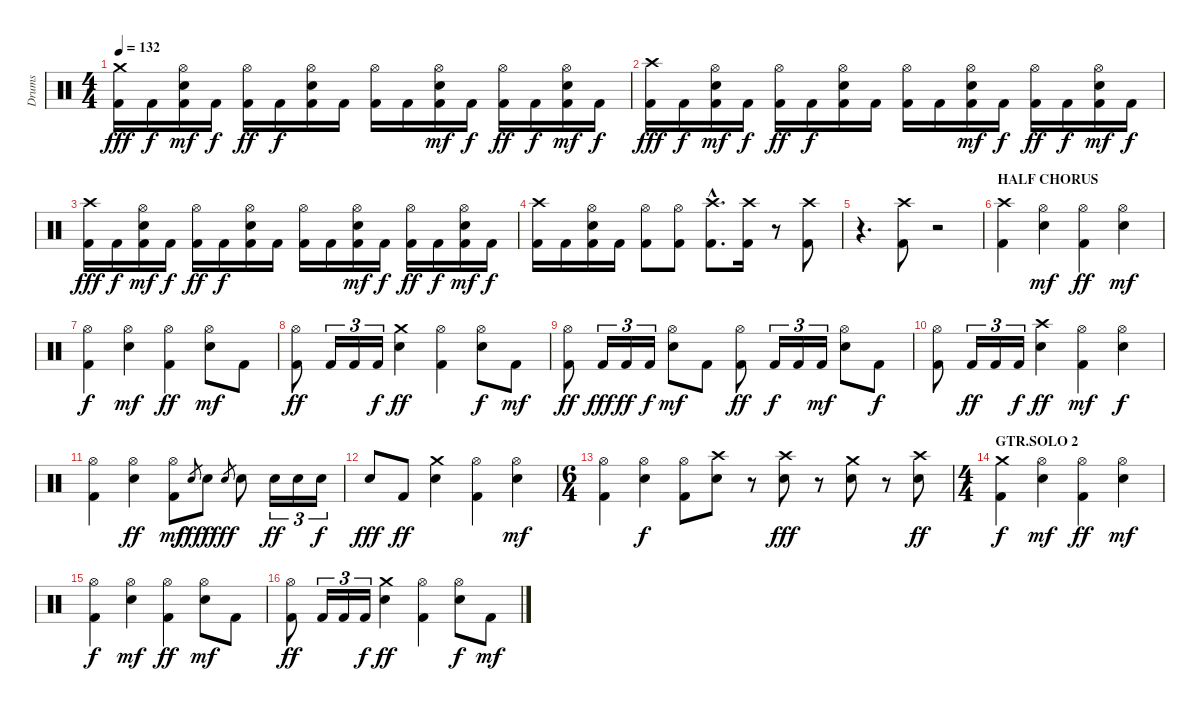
\track ("Drums" "Drums") {instrument percussion}
\staff {score}
\articulation defaults
\ts (4 4)
\tempo 132
\clef neutral
\ks c
("Crash medium (hit)" "Kick (hit) 2").16{dy fff} "Kick (hit) 2".16{dy f} ("Hi-Hat (open)" "Electric Snare (hit)" "Kick (hit) 2").16{dy mf} "Kick (hit) 2".16{dy f} ("Hi-Hat (open)" "Kick (hit) 2").16{dy ff} "Kick (hit) 2".16{dy f} ("Hi-Hat (open)" "Electric Snare (hit)" "Kick (hit) 2").16 "Kick (hit) 2".16 ("Hi-Hat (open)" "Kick (hit) 2").16 "Kick (hit) 2".16 ("Hi-Hat (open)" "Electric Snare (hit)" "Kick (hit) 2").16{dy mf} "Kick (hit) 2".16{dy f} ("Hi-Hat (open)" "Kick (hit) 2").16{dy ff} "Kick (hit) 2".16{dy f} ("Hi-Hat (open)" "Electric Snare (hit)" "Kick (hit) 2").16{dy mf} "Kick (hit) 2".16{dy f} |
("Crash high (hit)" "Kick (hit) 2").16{dy fff} "Kick (hit) 2".16{dy f} ("Hi-Hat (open)" "Electric Snare (hit)" "Kick (hit) 2").16{dy mf} "Kick (hit) 2".16{dy f} ("Hi-Hat (open)" "Kick (hit) 2").16{dy ff} "Kick (hit) 2".16{dy f} ("Hi-Hat (open)" "Electric Snare (hit)" "Kick (hit) 2").16 "Kick (hit) 2".16 ("Hi-Hat (open)" "Kick (hit) 2").16 "Kick (hit) 2".16 ("Hi-Hat (open)" "Electric Snare (hit)" "Kick (hit) 2").16{dy mf} "Kick (hit) 2".16{dy f} ("Hi-Hat (open)" "Kick (hit) 2").16{dy ff} "Kick (hit) 2".16{dy f} ("Hi-Hat (open)" "Electric Snare (hit)" "Kick (hit) 2").16{dy mf} "Kick (hit) 2".16{dy f} |
("Crash high (hit)" "Kick (hit) 2").16{dy fff} "Kick (hit) 2".16{dy f} ("Hi-Hat (open)" "Electric Snare (hit)" "Kick (hit) 2").16{dy mf} "Kick (hit) 2".16{dy f} ("Hi-Hat (open)" "Kick (hit) 2").16{dy ff} "Kick (hit) 2".16{dy f} ("Hi-Hat (open)" "Electric Snare (hit)" "Kick (hit) 2").16 "Kick (hit) 2".16 ("Hi-Hat (open)" "Kick (hit) 2").16 "Kick (hit) 2".16 ("Hi-Hat (open)" "Electric Snare (hit)" "Kick (hit) 2").16{dy mf} "Kick (hit) 2".16{dy f} ("Hi-Hat (open)" "Kick (hit) 2").16{dy ff} "Kick (hit) 2".16{dy f} ("Hi-Hat (open)" "Electric Snare (hit)" "Kick (hit) 2").16{dy mf} "Kick (hit) 2".16{dy f} |
("Crash high (hit)" "Kick (hit) 2").16 "Kick (hit) 2".16 ("Hi-Hat (open)" "Electric Snare (hit)" "Kick (hit) 2").16 "Kick (hit) 2".16 ("Hi-Hat (open)" "Kick (hit) 2").8 ("Hi-Hat (open)" "Kick (hit) 2").8 ("Crash high (hit)"{hac} "Kick (hit) 2"{hac}).8{d} ("Crash high (hit)" "Kick (hit) 2").16 r.8 ("Crash high (hit)" "Kick (hit) 2").8 |
r.4{d volume 0} ("Crash high (hit)" "Kick (hit) 2").8{volume 14} r.2{volume 0} |
\section ("" "HALF CHORUS")
("Crash high (hit)" "Kick (hit) 2").4{volume 14} ("Hi-Hat (open)" "Electric Snare (hit)").4{dy mf} ("Hi-Hat (open)" "Kick (hit) 2").4{dy ff} ("Hi-Hat (open)" "Electric Snare (hit)").4{dy mf} |
("Hi-Hat (open)" "Kick (hit) 2").4{dy f} ("Hi-Hat (open)" "Electric Snare (hit)").4{dy mf} ("Hi-Hat (open)" "Kick (hit) 2").4{dy ff} ("Hi-Hat (open)" "Electric Snare (hit)").8{dy mf} "Kick (hit) 2".8 |
("Hi-Hat (open)" "Kick (hit) 2").8{dy ff} "Kick (hit) 2".16{tu (3 2)} "Kick (hit) 2".16{tu (3 2)} "Kick (hit) 2".16{tu (3 2) dy f} ("Crash medium (hit)" "Electric Snare (hit)").4{dy ff} ("Hi-Hat (open)" "Kick (hit) 2").4 ("Hi-Hat (open)" "Electric Snare (hit)").8{dy f} "Kick (hit) 2".8{dy mf} |
("Hi-Hat (open)" "Kick (hit) 2").8{dy ff} "Kick (hit) 2".16{tu (3 2) dy fff} "Kick (hit) 2".16{tu (3 2) dy ff} "Kick (hit) 2".16{tu (3 2) dy f} ("Hi-Hat (open)" "Electric Snare (hit)").8{dy mf} "Kick (hit) 2".8 ("Hi-Hat (open)" "Kick (hit) 2").8{dy ff} "Kick (hit) 2".16{tu (3 2) dy f} "Kick (hit) 2".16{tu (3 2)} "Kick (hit) 2".16{tu (3 2) dy mf} ("Hi-Hat (open)" "Electric Snare (hit)").8 "Kick (hit) 2".8{dy f} |
("Hi-Hat (open)" "Kick (hit) 2").8 "Kick (hit) 2".16{tu (3 2) dy ff} "Kick (hit) 2".16{tu (3 2)} "Kick (hit) 2".16{tu (3 2) dy f} ("Crash high (hit)" "Electric Snare (hit)").4{dy ff} ("Hi-Hat (open)" "Kick (hit) 2").4{dy mf} ("Hi-Hat (open)" "Electric Snare (hit)").4{dy f} |
("Hi-Hat (open)" "Kick (hit) 2").4 ("Hi-Hat (open)" "Electric Snare (hit)").4{dy ff} ("Hi-Hat (open)" "Kick (hit) 2").8{dy mf} "Electric Snare (hit)".8{gr dy fff} "Electric Snare (hit)".8{dy f} "Electric Snare (hit)"{sl}.8{gr dy fff} "Electric Snare (hit)".8 "Electric Snare (hit)".16{tu (3 2) dy ff} "Electric Snare (hit)".16{tu (3 2)} "Electric Snare (hit)".16{tu (3 2) dy f} |
"Electric Snare (hit)".8{dy fff} "Kick (hit) 2".8{dy ff} ("Crash medium (hit)" "Electric Snare (hit)").4 ("Hi-Hat (open)" "Kick (hit) 2").4 ("Hi-Hat (open)" "Electric Snare (hit)").4{dy mf} |
\ts (6 4)
("Hi-Hat (open)" "Kick (hit) 2").4 ("Hi-Hat (open)" "Electric Snare (hit)").4{dy f} ("Hi-Hat (open)" "Kick (hit) 2").8 ("Crash high (hit)" "Electric Snare (hit)").8 r.8 ("Crash high (hit)" "Electric Snare (hit)").8{dy fff} r.8 ("Crash medium (hit)" "Electric Snare (hit)").8 r.8 ("Crash high (hit)" "Electric Snare (hit)").8{dy ff} |
\ts (4 4)
\section ("" "GTR.SOLO 2")
("Crash medium (hit)" "Kick (hit) 2").4{dy f} ("Hi-Hat (open)" "Electric Snare (hit)").4{dy mf} ("Hi-Hat (open)" "Kick (hit) 2").4{dy ff} ("Hi-Hat (open)" "Electric Snare (hit)").4{dy mf} |
("Hi-Hat (open)" "Kick (hit) 2").4{dy f} ("Hi-Hat (open)" "Electric Snare (hit)").4{dy mf} ("Hi-Hat (open)" "Kick (hit) 2").4{dy ff} ("Hi-Hat (open)" "Electric Snare (hit)").8{dy mf} "Kick (hit) 2".8 |
("Hi-Hat (open)" "Kick (hit) 2").8{dy ff} "Kick (hit) 2".16{tu (3 2)} "Kick (hit) 2".16{tu (3 2)} "Kick (hit) 2".16{tu (3 2) dy f} ("Crash medium (hit)" "Electric Snare (hit)").4{dy ff} ("Hi-Hat (open)" "Kick (hit) 2").4 ("Hi-Hat (open)" "Electric Snare (hit)").8{dy f} "Kick (hit) 2".8{dy mf}
